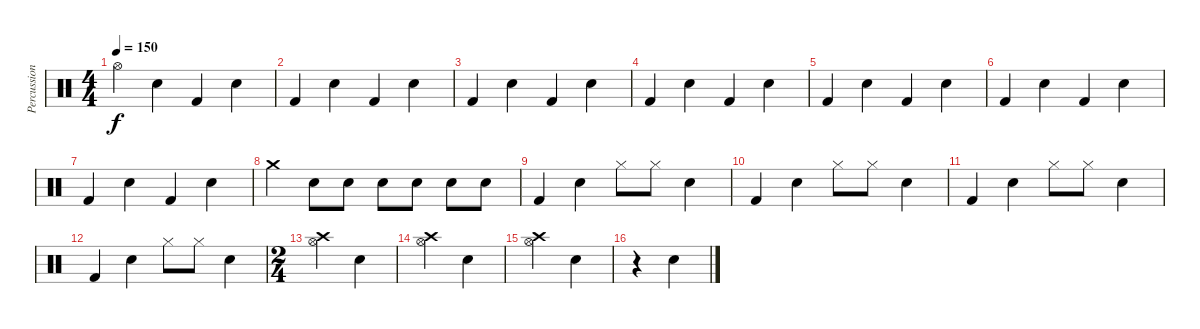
\track ("Percussion" "Percussion") {instrument percussion}
\staff {score}
\articulation defaults
\ts (4 4)
\tempo 150
\clef neutral
\ks c "Hi-Hat (open)".4{dy f} "Snare (hit) 2".4 "Kick (hit) 2".4 "Snare (hit) 2".4
|
"Kick (hit) 2".4 "Snare (hit) 2".4 "Kick (hit) 2".4 "Snare (hit) 2".4 |
"Kick (hit) 2".4 "Snare (hit) 2".4 "Kick (hit) 2".4 "Snare (hit) 2".4 |
"Kick (hit) 2".4 "Snare (hit) 2".4 "Kick (hit) 2".4 "Snare (hit) 2".4 |
"Kick (hit) 2".4 "Snare (hit) 2".4 "Kick (hit) 2".4 "Snare (hit) 2".4 |
"Kick (hit) 2".4 "Snare (hit) 2".4 "Kick (hit) 2".4 "Snare (hit) 2".4 |
"Kick (hit) 2".4 "Snare (hit) 2".4 "Kick (hit) 2".4 "Snare (hit) 2".4 |
"Crash medium (hit)".4 "Snare (hit) 2".8 "Snare (hit) 2".8 "Snare (hit) 2".8 "Snare (hit) 2".8 "Snare (hit) 2".8 "Snare (hit) 2".8 |
"Kick (hit) 2".4 "Snare (hit) 2".4 "Hi-Hat (closed)".8 "Hi-Hat (closed)".8 "Snare (hit) 2".4 |
"Kick (hit) 2".4 "Snare (hit) 2".4 "Hi-Hat (closed)".8 "Hi-Hat (closed)".8 "Snare (hit) 2".4 |
"Kick (hit) 2".4 "Snare (hit) 2".4 "Hi-Hat (closed)".8 "Hi-Hat (closed)".8 "Snare (hit) 2".4 |
"Kick (hit) 2".4 "Snare (hit) 2".4 "Hi-Hat (closed)".8 "Hi-Hat (closed)".8 "Snare (hit) 2".4 |
\ts (2 4)
("Hi-Hat (open)" "Crash high (hit)").4 "Snare (hit) 2".4 |
("Hi-Hat (open)" "Crash high (hit)").4 "Snare (hit) 2".4 |
("Hi-Hat (open)" "Crash high (hit)").4 "Snare (hit) 2".4 |
r.4 "Snare (hit) 2".4
